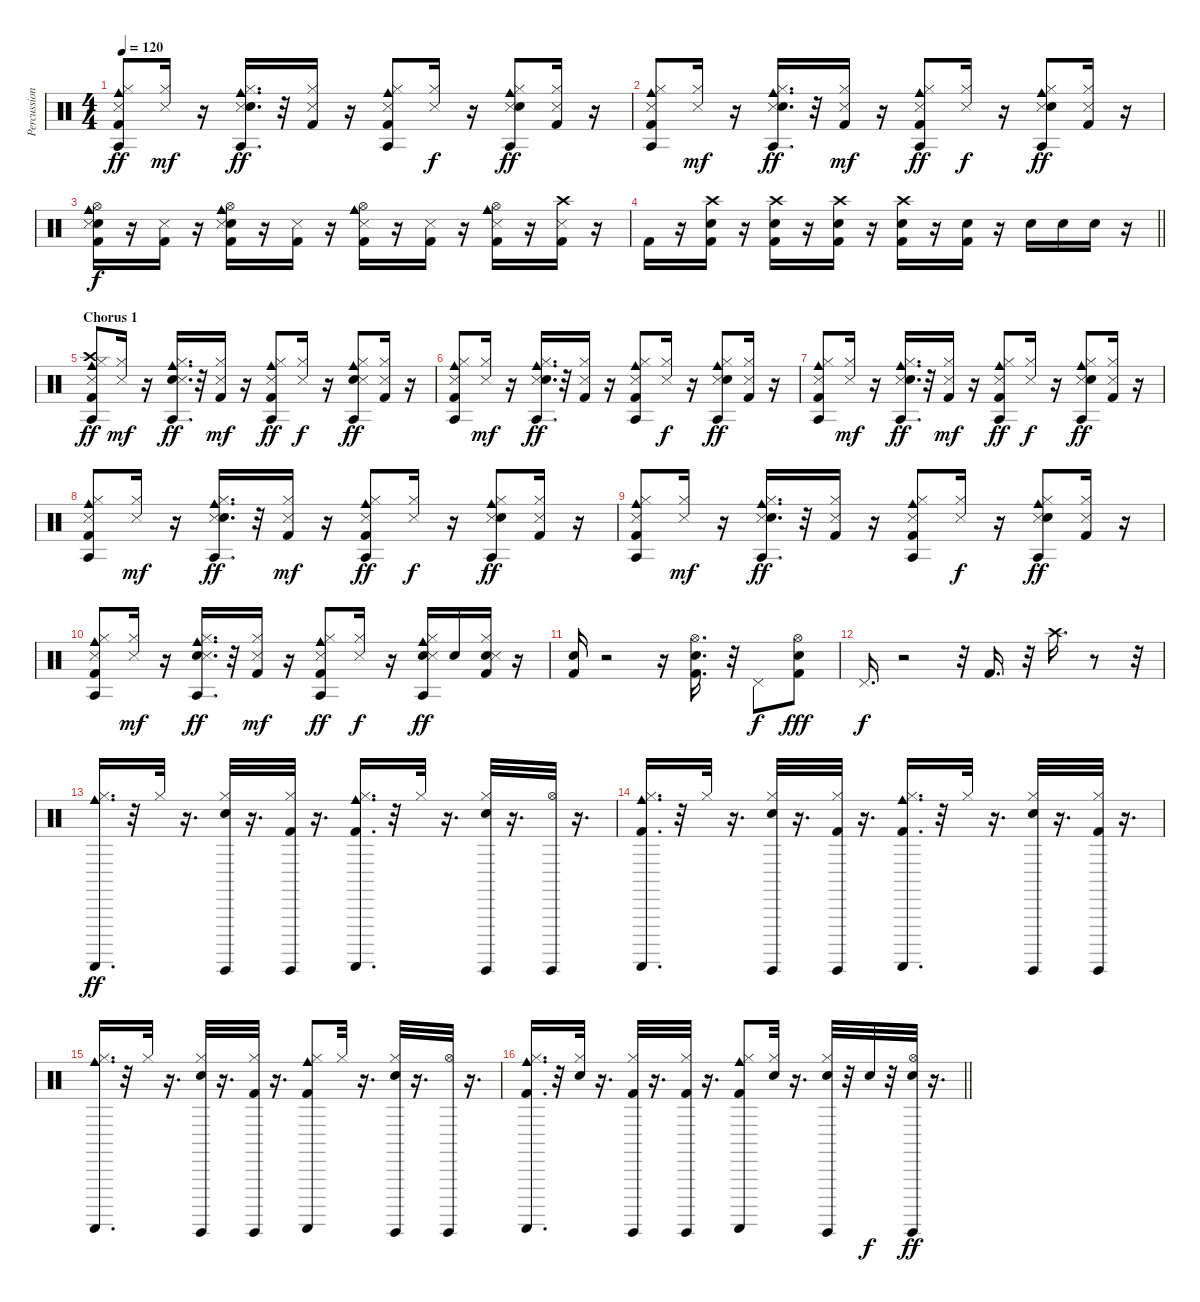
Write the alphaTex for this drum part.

\track ("Percussion" "Percussion") {instrument percussion}
\staff {score}
\articulation defaults
\ts (4 4)
\tempo 120
\clef neutral
\ks c
("Agogo tow (hit)" "Snare (side stick) 3" "Cowbell medium (hit)" "Hi-Hat (closed)" "Kick (hit) 2").8{dy ff} ("Snare (side stick) 3" "Hi-Hat (closed)").16{dy mf} r.16 ("Agogo tow (hit)" "Snare (side stick) 3" "Cowbell medium (hit)" "Hi-Hat (closed)" "Snare (hit) 2").16{d dy ff} r.32 ("Snare (side stick) 3" "Hi-Hat (closed)" "Kick (hit) 2").16 r.16 ("Agogo tow (hit)" "Snare (side stick) 3" "Cowbell medium (hit)" "Hi-Hat (closed)" "Kick (hit) 2").8 ("Snare (side stick) 3" "Hi-Hat (closed)").16{dy f} r.16 ("Agogo tow (hit)" "Snare (side stick) 3" "Cowbell medium (hit)" "Hi-Hat (closed)" "Snare (hit) 2").8{dy ff} ("Snare (side stick) 3" "Hi-Hat (closed)" "Kick (hit) 2").16 r.16 |
("Cowbell medium (hit)" "Snare (side stick) 3" "Agogo tow (hit)" "Kick (hit) 2" "Hi-Hat (closed)").8 ("Snare (side stick) 3" "Hi-Hat (closed)").16{dy mf} r.16 ("Cowbell medium (hit)" "Snare (side stick) 3" "Agogo tow (hit)" "Snare (hit) 2" "Hi-Hat (closed)").16{d dy ff} r.32 ("Snare (side stick) 3" "Kick (hit) 2" "Hi-Hat (closed)").16{dy mf} r.16 ("Cowbell medium (hit)" "Snare (side stick) 3" "Agogo tow (hit)" "Kick (hit) 2" "Hi-Hat (closed)").8{dy ff} ("Snare (side stick) 3" "Hi-Hat (closed)").16{dy f} r.16 ("Cowbell medium (hit)" "Snare (side stick) 3" "Agogo tow (hit)" "Snare (hit) 2" "Hi-Hat (closed)").8{dy ff} ("Snare (side stick) 3" "Kick (hit) 2" "Hi-Hat (closed)").16 r.16 |
("Electric Snare (hit)" "Snare (side stick) 3" "Cowbell medium (hit)" "Hi-Hat (open)" "Kick (hit) 2").16{dy f} r.16 ("Snare (side stick) 3" "Kick (hit) 2").16 r.16 ("Electric Snare (hit)" "Snare (side stick) 3" "Cowbell medium (hit)" "Hi-Hat (open)" "Kick (hit) 2").16 r.16 ("Snare (side stick) 3" "Kick (hit) 2").16 r.16 ("Snare (side stick) 3" "Cowbell medium (hit)" "Hi-Hat (open)" "Kick (hit) 2").16 r.16 ("Snare (side stick) 3" "Kick (hit) 2").16 r.16 ("Snare (side stick) 3" "Cowbell medium (hit)" "Hi-Hat (open)" "Kick (hit) 2").16 r.16 ("Crash high (hit)" "Snare (side stick) 3" "Kick (hit) 2").16 r.16 |
\barLineRight lightlight "Kick (hit) 2".16
r.16 ("Crash high (hit)" "Snare (hit) 2" "Kick (hit) 2").16 r.16 ("Snare (hit) 2" "Crash high (hit)" "Kick (hit) 2").16 r.16 ("Snare (hit) 2" "Kick (hit) 2" "Crash high (hit)").16 r.16 ("Snare (hit) 2" "Crash high (hit)" "Kick (hit) 2").16 r.16 ("Snare (hit) 2" "Kick (hit) 2").16 r.16 "Snare (hit) 2".16 "Snare (hit) 2".16 "Snare (hit) 2".16 r.16 |
\section ("" "Chorus 1")
("Kick (hit) 2" "Hi-Hat (closed)" "Agogo tow (hit)" "Crash high (hit)" "Cowbell medium (hit)" "Snare (side stick) 3").8{dy ff} ("Hi-Hat (closed)" "Snare (side stick) 3").16{dy mf} r.16 ("Snare (hit) 2" "Hi-Hat (closed)" "Agogo tow (hit)" "Cowbell medium (hit)" "Snare (side stick) 3").16{d dy ff} r.32 ("Kick (hit) 2" "Hi-Hat (closed)" "Snare (side stick) 3").16{dy mf} r.16 ("Kick (hit) 2" "Hi-Hat (closed)" "Agogo tow (hit)" "Cowbell medium (hit)" "Snare (side stick) 3").8{dy ff} ("Hi-Hat (closed)" "Snare (side stick) 3").16{dy f} r.16 ("Snare (hit) 2" "Hi-Hat (closed)" "Agogo tow (hit)" "Cowbell medium (hit)" "Snare (side stick) 3").8{dy ff} ("Kick (hit) 2" "Hi-Hat (closed)" "Snare (side stick) 3").16 r.16 |
("Cowbell medium (hit)" "Snare (side stick) 3" "Hi-Hat (closed)" "Agogo tow (hit)" "Kick (hit) 2").8 ("Snare (side stick) 3" "Hi-Hat (closed)").16{dy mf} r.16 ("Cowbell medium (hit)" "Snare (side stick) 3" "Hi-Hat (closed)" "Agogo tow (hit)" "Snare (hit) 2").16{d dy ff} r.32 ("Snare (side stick) 3" "Hi-Hat (closed)" "Kick (hit) 2").16 r.16 ("Cowbell medium (hit)" "Snare (side stick) 3" "Hi-Hat (closed)" "Agogo tow (hit)" "Kick (hit) 2").8 ("Snare (side stick) 3" "Hi-Hat (closed)").16{dy f} r.16 ("Cowbell medium (hit)" "Snare (side stick) 3" "Hi-Hat (closed)" "Agogo tow (hit)" "Snare (hit) 2").8{dy ff} ("Snare (side stick) 3" "Hi-Hat (closed)" "Kick (hit) 2").16 r.16 |
("Snare (side stick) 3" "Agogo tow (hit)" "Kick (hit) 2" "Cowbell medium (hit)" "Hi-Hat (closed)").8 ("Snare (side stick) 3" "Hi-Hat (closed)").16{dy mf} r.16 ("Snare (side stick) 3" "Agogo tow (hit)" "Snare (hit) 2" "Cowbell medium (hit)" "Hi-Hat (closed)").16{d dy ff} r.32 ("Snare (side stick) 3" "Kick (hit) 2" "Hi-Hat (closed)").16{dy mf} r.16 ("Snare (side stick) 3" "Agogo tow (hit)" "Kick (hit) 2" "Cowbell medium (hit)" "Hi-Hat (closed)").8{dy ff} ("Snare (side stick) 3" "Hi-Hat (closed)").16{dy f} r.16 ("Snare (side stick) 3" "Agogo tow (hit)" "Snare (hit) 2" "Cowbell medium (hit)" "Hi-Hat (closed)").8{dy ff} ("Snare (side stick) 3" "Kick (hit) 2" "Hi-Hat (closed)").16 r.16 |
("Cowbell medium (hit)" "Agogo tow (hit)" "Snare (side stick) 3" "Kick (hit) 2" "Hi-Hat (closed)").8 ("Snare (side stick) 3" "Hi-Hat (closed)").16{dy mf} r.16 ("Cowbell medium (hit)" "Agogo tow (hit)" "Snare (side stick) 3" "Snare (hit) 2" "Hi-Hat (closed)").16{d dy ff} r.32 ("Snare (side stick) 3" "Kick (hit) 2" "Hi-Hat (closed)").16{dy mf} r.16 ("Cowbell medium (hit)" "Agogo tow (hit)" "Snare (side stick) 3" "Kick (hit) 2" "Hi-Hat (closed)").8{dy ff} ("Snare (side stick) 3" "Hi-Hat (closed)").16{dy f} r.16 ("Cowbell medium (hit)" "Agogo tow (hit)" "Snare (side stick) 3" "Snare (hit) 2" "Hi-Hat (closed)").8{dy ff} ("Snare (side stick) 3" "Kick (hit) 2" "Hi-Hat (closed)").16 r.16 |
("Hi-Hat (closed)" "Cowbell medium (hit)" "Snare (side stick) 3" "Agogo tow (hit)" "Kick (hit) 2").8 ("Hi-Hat (closed)" "Snare (side stick) 3").16{dy mf} r.16 ("Hi-Hat (closed)" "Cowbell medium (hit)" "Snare (side stick) 3" "Agogo tow (hit)" "Snare (hit) 2").16{d dy ff} r.32 ("Hi-Hat (closed)" "Snare (side stick) 3" "Kick (hit) 2").16 r.16 ("Hi-Hat (closed)" "Cowbell medium (hit)" "Snare (side stick) 3" "Agogo tow (hit)" "Kick (hit) 2").8 ("Hi-Hat (closed)" "Snare (side stick) 3").16{dy f} r.16 ("Hi-Hat (closed)" "Cowbell medium (hit)" "Snare (side stick) 3" "Agogo tow (hit)" "Snare (hit) 2").8{dy ff} ("Hi-Hat (closed)" "Snare (side stick) 3" "Kick (hit) 2").16 r.16 |
("Kick (hit) 2" "Agogo tow (hit)" "Cowbell medium (hit)" "Snare (side stick) 3" "Hi-Hat (closed)").8 ("Snare (side stick) 3" "Hi-Hat (closed)").16{dy mf} r.16 ("Snare (hit) 2" "Agogo tow (hit)" "Cowbell medium (hit)" "Snare (side stick) 3" "Hi-Hat (closed)").16{d dy ff} r.32 ("Kick (hit) 2" "Snare (side stick) 3" "Hi-Hat (closed)").16{dy mf} r.16 ("Kick (hit) 2" "Agogo tow (hit)" "Cowbell medium (hit)" "Snare (side stick) 3" "Hi-Hat (closed)").8{dy ff} ("Snare (side stick) 3" "Hi-Hat (closed)").16{dy f} r.16 ("Snare (hit) 2" "Agogo tow (hit)" "Cowbell medium (hit)" "Snare (side stick) 3" "Hi-Hat (closed)").16{dy ff} "Snare (hit) 2".16 ("Snare (hit) 2" "Kick (hit) 2" "Snare (side stick) 3" "Hi-Hat (closed)").16 r.16 |
("Kick (hit) 2" "Snare (hit) 2").16 r.2 r.16 ("Snare (hit) 2" "Kick (hit) 2" "Hi-Hat (open)").16{d} r.32 "Pedal Hi-Hat (hit)".8{dy f} ("Kick (hit) 2" "Snare (hit) 2" "Hi-Hat (open)").8{dy fff} |
"Pedal Hi-Hat (hit)".16{d dy f} r.2 r.32 "Kick (hit) 2".16{d} r.32 "Crash high (hit)".16{d} r.8 r.32 |
("Cowbell medium (hit)" "Guiro (scrap-return)" "Hi-Hat (closed)").16{d dy ff} r.32 "Hi-Hat (closed)".32 r.16{d} ("Guiro (hit)" "Snare (hit) 2" "Hi-Hat (closed)").32 r.16{d} ("Hi-Hat (closed)" "Kick (hit) 2" "Guiro (hit)").32 r.16{d} ("Guiro (scrap-return)" "Kick (hit) 2" "Hi-Hat (closed)" "Cowbell medium (hit)").16{d} r.32 "Hi-Hat (closed)".32 r.16{d} ("Guiro (hit)" "Snare (hit) 2" "Hi-Hat (closed)").32 r.16{d} ("Hi-Hat (open)" "Guiro (hit)").32 r.16{d} |
("Guiro (scrap-return)" "Kick (hit) 2" "Hi-Hat (closed)" "Cowbell medium (hit)").16{d} r.32 "Hi-Hat (closed)".32 r.16{d} ("Guiro (hit)" "Snare (hit) 2" "Hi-Hat (closed)").32 r.16{d} ("Hi-Hat (closed)" "Kick (hit) 2" "Guiro (hit)").32 r.16{d} ("Guiro (scrap-return)" "Kick (hit) 2" "Hi-Hat (closed)" "Cowbell medium (hit)").16{d} r.32 "Hi-Hat (closed)".32 r.16{d} ("Guiro (hit)" "Snare (hit) 2" "Hi-Hat (closed)").32 r.16{d} ("Guiro (hit)" "Hi-Hat (closed)" "Kick (hit) 2").32 r.16{d} |
("Guiro (scrap-return)" "Hi-Hat (closed)" "Cowbell medium (hit)").16{d} r.32 "Hi-Hat (closed)".32 r.16{d} ("Guiro (hit)" "Snare (hit) 2" "Hi-Hat (closed)").32 r.16{d} ("Hi-Hat (closed)" "Kick (hit) 2" "Guiro (hit)").32 r.16{d} ("Cowbell medium (hit)" "Guiro (scrap-return)" "Kick (hit) 2" "Hi-Hat (closed)").8 "Hi-Hat (closed)".32 r.16{d} ("Guiro (hit)" "Snare (hit) 2" "Hi-Hat (closed)").32 r.16{d} ("Hi-Hat (open)" "Guiro (hit)").32 r.16{d} |
\barLineRight lightlight
("Kick (hit) 2" "Guiro (scrap-return)" "Hi-Hat (closed)" "Cowbell medium (hit)").16{d} r.32 ("Snare (hit) 2" "Hi-Hat (closed)").32 r.16{d} ("Kick (hit) 2" "Guiro (hit)" "Hi-Hat (closed)").32 r.16{d} ("Hi-Hat (closed)" "Kick (hit) 2" "Guiro (hit)").32 r.16{d} ("Cowbell medium (hit)" "Guiro (scrap-return)" "Kick (hit) 2" "Hi-Hat (closed)").8 ("Snare (hit) 2" "Hi-Hat (closed)").32 r.16{d} ("Electric Snare (hit)" "Guiro (hit)" "Hi-Hat (closed)").32 r.32 "Electric Snare (hit)".32{dy f} r.32 ("Electric Snare (hit)" "Hi-Hat (open)" "Guiro (hit)").32{dy ff} r.16{d}
